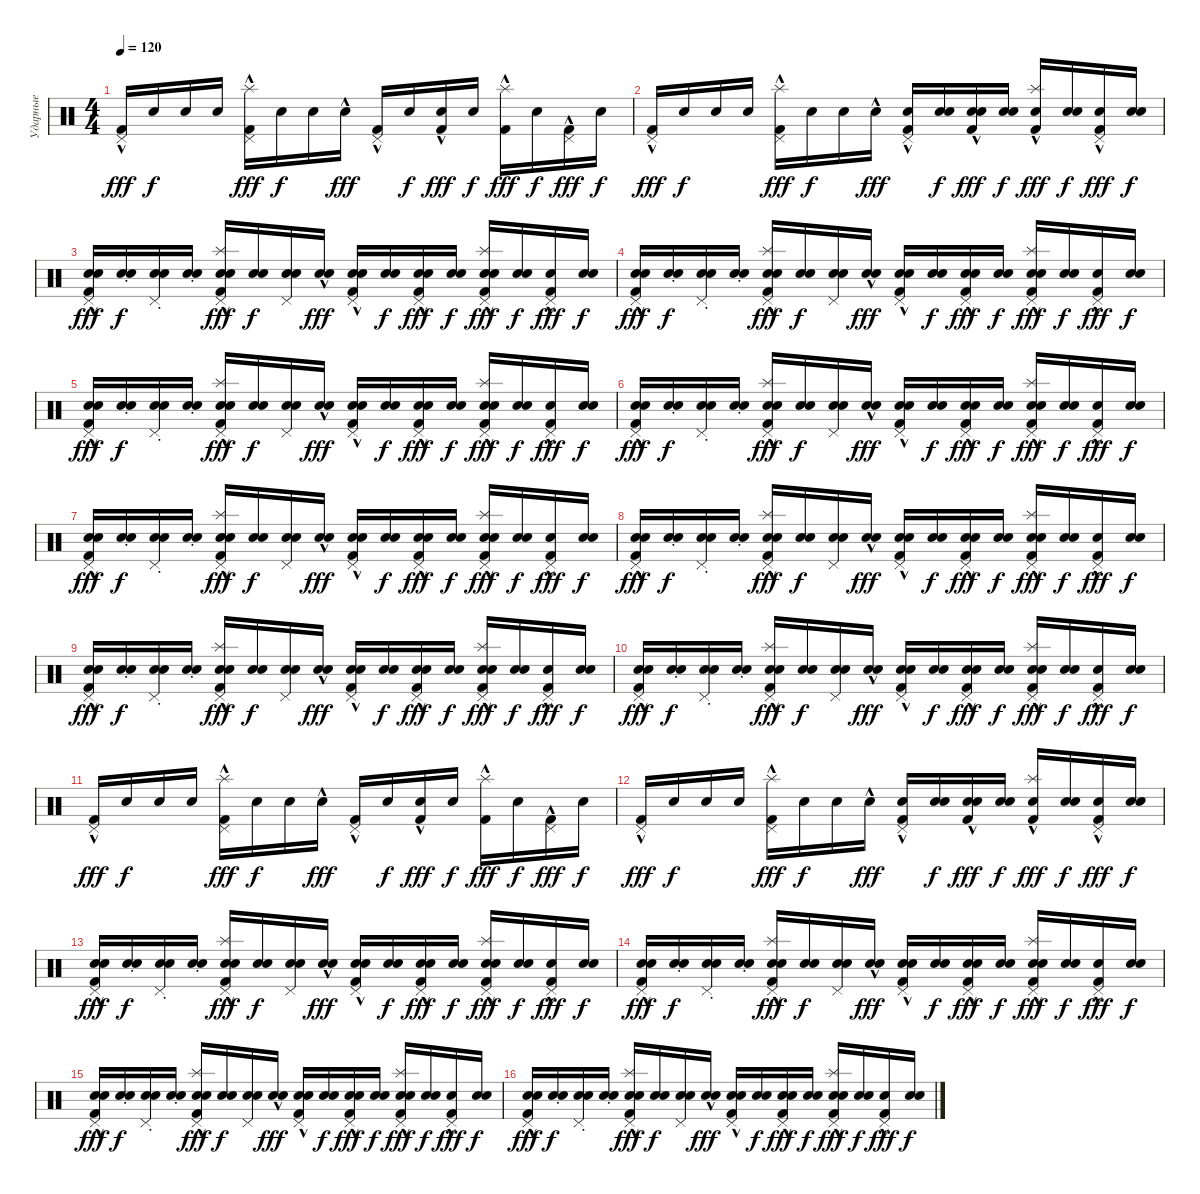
\track ("Ударные" "Ударные") {instrument percussion}
\staff {score}
\articulation defaults
\ts (4 4)
\tempo 120
\clef neutral
\ks c
("Pedal Hi-Hat (hit)"{hac} "Kick (hit) 2"{hac}).16{dy fff} "Snare (hit)".16{dy f} "Snare (hit)".16 "Snare (hit)".16 ("Splash (hit)" "Pedal Hi-Hat (hit)" "Kick (hit) 2"{hac}).16{dy fff} "Snare (hit)".16{dy f} "Snare (hit)".16 "Snare (hit)"{hac}.16{dy fff} ("Pedal Hi-Hat (hit)" "Kick (hit) 2"{hac}).16 "Snare (hit)".16{dy f} ("Electric Snare (hit)" "Kick (hit) 2"{hac}).16{dy fff} "Snare (hit)".16{dy f} ("Splash (hit)"{hac} "Kick (hit) 2"{hac}).16{dy fff} "Snare (hit)".16{dy f} ("Pedal Hi-Hat (hit)"{hac} "Kick (hit) 2"{hac}).16{dy fff} "Snare (hit)".16{dy f} |
("Pedal Hi-Hat (hit)"{hac} "Kick (hit) 2"{hac}).16{dy fff} "Snare (hit)".16{dy f} "Snare (hit)".16 "Snare (hit)".16 ("Splash (hit)" "Pedal Hi-Hat (hit)" "Kick (hit) 2"{hac}).16{dy fff} "Snare (hit)".16{dy f} "Snare (hit)".16 "Snare (hit)"{hac}.16{dy fff} ("Electric Snare (hit)" "Pedal Hi-Hat (hit)"{hac} "Kick (hit) 2"{hac}).16 ("Electric Snare (hit)" "Snare (hit)").16{dy f} ("Electric Snare (hit)" "Electric Snare (hit)"{hac} "Kick (hit) 2"{hac}).16{dy fff} ("Electric Snare (hit)" "Snare (hit)").16{dy f} ("Electric Snare (hit)" "Splash (hit)" "Kick (hit) 2"{hac}).16{dy fff} ("Electric Snare (hit)" "Snare (hit)").16{dy f} ("Electric Snare (hit)" "Pedal Hi-Hat (hit)"{hac} "Kick (hit) 2"{hac}).16{dy fff} ("Electric Snare (hit)" "Snare (hit)").16{dy f} |
("Electric Snare (hit)" "Pedal Hi-Hat (hit)"{hac} "Snare (hit) 2"{hac} "Kick (hit) 2"{hac}).16{dy fff} ("Electric Snare (hit)"{st} "Snare (hit)").16{dy f} ("Electric Snare (hit)"{st} "Pedal Hi-Hat (hit)" "Snare (hit)").16 ("Electric Snare (hit)"{st} "Snare (hit)").16 ("Electric Snare (hit)" "Splash (hit)" "Pedal Hi-Hat (hit)" "Snare (hit) 2"{hac} "Kick (hit) 2"{hac}).16{dy fff} ("Electric Snare (hit)" "Snare (hit)").16{dy f} ("Electric Snare (hit)" "Pedal Hi-Hat (hit)" "Snare (hit)").16 ("Electric Snare (hit)" "Snare (hit)"{hac}).16{dy fff} ("Electric Snare (hit)" "Pedal Hi-Hat (hit)" "Snare (hit) 2"{hac} "Kick (hit) 2"{hac}).16 ("Electric Snare (hit)" "Snare (hit)").16{dy f} ("Electric Snare (hit)" "Electric Snare (hit)" "Pedal Hi-Hat (hit)" "Kick (hit) 2"{hac}).16{dy fff} ("Electric Snare (hit)" "Snare (hit)").16{dy f} ("Electric Snare (hit)" "Splash (hit)"{hac} "Pedal Hi-Hat (hit)" "Snare (hit) 2"{hac} "Kick (hit) 2"{hac}).16{dy fff} ("Electric Snare (hit)" "Snare (hit)").16{dy f} ("Electric Snare (hit)" "Pedal Hi-Hat (hit)"{hac} "Kick (hit) 2"{hac}).16{dy fff} ("Electric Snare (hit)" "Snare (hit)").16{dy f} |
("Electric Snare (hit)" "Pedal Hi-Hat (hit)"{hac} "Snare (hit) 2"{hac} "Kick (hit) 2"{hac}).16{dy fff} ("Electric Snare (hit)"{st} "Snare (hit)").16{dy f} ("Electric Snare (hit)"{st} "Pedal Hi-Hat (hit)" "Snare (hit)").16 ("Electric Snare (hit)"{st} "Snare (hit)").16 ("Electric Snare (hit)" "Splash (hit)" "Pedal Hi-Hat (hit)" "Snare (hit) 2"{hac} "Kick (hit) 2"{hac}).16{dy fff} ("Electric Snare (hit)" "Snare (hit)").16{dy f} ("Electric Snare (hit)" "Pedal Hi-Hat (hit)" "Snare (hit)").16 ("Electric Snare (hit)" "Snare (hit)"{hac}).16{dy fff} ("Electric Snare (hit)" "Pedal Hi-Hat (hit)"{hac} "Snare (hit) 2"{hac} "Kick (hit) 2"{hac}).16 ("Electric Snare (hit)" "Snare (hit)").16{dy f} ("Electric Snare (hit)" "Electric Snare (hit)"{hac} "Pedal Hi-Hat (hit)"{hac} "Kick (hit) 2"{hac}).16{dy fff} ("Electric Snare (hit)" "Snare (hit)").16{dy f} ("Electric Snare (hit)" "Splash (hit)" "Pedal Hi-Hat (hit)"{hac} "Snare (hit) 2"{hac} "Kick (hit) 2"{hac}).16{dy fff} ("Electric Snare (hit)" "Snare (hit)").16{dy f} ("Electric Snare (hit)" "Pedal Hi-Hat (hit)"{hac} "Kick (hit) 2"{hac}).16{dy fff} ("Electric Snare (hit)" "Snare (hit)").16{dy f} |
("Electric Snare (hit)" "Pedal Hi-Hat (hit)"{hac} "Snare (hit) 2"{hac} "Kick (hit) 2"{hac}).16{dy fff} ("Electric Snare (hit)"{st} "Snare (hit)").16{dy f} ("Electric Snare (hit)"{st} "Pedal Hi-Hat (hit)" "Snare (hit)").16 ("Electric Snare (hit)"{st} "Snare (hit)").16 ("Electric Snare (hit)" "Splash (hit)" "Pedal Hi-Hat (hit)" "Snare (hit) 2"{hac} "Kick (hit) 2"{hac}).16{dy fff} ("Electric Snare (hit)" "Snare (hit)").16{dy f} ("Electric Snare (hit)" "Pedal Hi-Hat (hit)" "Snare (hit)").16 ("Electric Snare (hit)" "Snare (hit)"{hac}).16{dy fff} ("Electric Snare (hit)" "Pedal Hi-Hat (hit)" "Snare (hit) 2"{hac} "Kick (hit) 2"{hac}).16 ("Electric Snare (hit)" "Snare (hit)").16{dy f} ("Electric Snare (hit)" "Electric Snare (hit)" "Pedal Hi-Hat (hit)" "Kick (hit) 2"{hac}).16{dy fff} ("Electric Snare (hit)" "Snare (hit)").16{dy f} ("Electric Snare (hit)" "Splash (hit)"{hac} "Pedal Hi-Hat (hit)" "Snare (hit) 2"{hac} "Kick (hit) 2"{hac}).16{dy fff} ("Electric Snare (hit)" "Snare (hit)").16{dy f} ("Electric Snare (hit)" "Pedal Hi-Hat (hit)"{hac} "Kick (hit) 2"{hac}).16{dy fff} ("Electric Snare (hit)" "Snare (hit)").16{dy f} |
("Electric Snare (hit)" "Pedal Hi-Hat (hit)"{hac} "Snare (hit) 2"{hac} "Kick (hit) 2"{hac}).16{dy fff} ("Electric Snare (hit)"{st} "Snare (hit)").16{dy f} ("Electric Snare (hit)"{st} "Pedal Hi-Hat (hit)" "Snare (hit)").16 ("Electric Snare (hit)"{st} "Snare (hit)").16 ("Electric Snare (hit)" "Splash (hit)" "Pedal Hi-Hat (hit)" "Snare (hit) 2"{hac} "Kick (hit) 2"{hac}).16{dy fff} ("Electric Snare (hit)" "Snare (hit)").16{dy f} ("Electric Snare (hit)" "Pedal Hi-Hat (hit)" "Snare (hit)").16 ("Electric Snare (hit)" "Snare (hit)"{hac}).16{dy fff} ("Electric Snare (hit)" "Pedal Hi-Hat (hit)"{hac} "Snare (hit) 2"{hac} "Kick (hit) 2"{hac}).16 ("Electric Snare (hit)" "Snare (hit)").16{dy f} ("Electric Snare (hit)" "Electric Snare (hit)"{hac} "Pedal Hi-Hat (hit)"{hac} "Kick (hit) 2"{hac}).16{dy fff} ("Electric Snare (hit)" "Snare (hit)").16{dy f} ("Electric Snare (hit)" "Splash (hit)" "Pedal Hi-Hat (hit)"{hac} "Snare (hit) 2"{hac} "Kick (hit) 2"{hac}).16{dy fff} ("Electric Snare (hit)" "Snare (hit)").16{dy f} ("Electric Snare (hit)" "Pedal Hi-Hat (hit)"{hac} "Kick (hit) 2"{hac}).16{dy fff} ("Electric Snare (hit)" "Snare (hit)").16{dy f} |
("Electric Snare (hit)" "Pedal Hi-Hat (hit)"{hac} "Snare (hit) 2"{hac} "Kick (hit) 2"{hac}).16{dy fff} ("Electric Snare (hit)"{st} "Snare (hit)").16{dy f} ("Electric Snare (hit)"{st} "Pedal Hi-Hat (hit)" "Snare (hit)").16 ("Electric Snare (hit)"{st} "Snare (hit)").16 ("Electric Snare (hit)" "Splash (hit)" "Pedal Hi-Hat (hit)" "Snare (hit) 2"{hac} "Kick (hit) 2"{hac}).16{dy fff} ("Electric Snare (hit)" "Snare (hit)").16{dy f} ("Electric Snare (hit)" "Pedal Hi-Hat (hit)" "Snare (hit)").16 ("Electric Snare (hit)" "Snare (hit)"{hac}).16{dy fff} ("Electric Snare (hit)" "Pedal Hi-Hat (hit)" "Snare (hit) 2"{hac} "Kick (hit) 2"{hac}).16 ("Electric Snare (hit)" "Snare (hit)").16{dy f} ("Electric Snare (hit)" "Electric Snare (hit)" "Pedal Hi-Hat (hit)" "Kick (hit) 2"{hac}).16{dy fff} ("Electric Snare (hit)" "Snare (hit)").16{dy f} ("Electric Snare (hit)" "Splash (hit)"{hac} "Pedal Hi-Hat (hit)" "Snare (hit) 2"{hac} "Kick (hit) 2"{hac}).16{dy fff} ("Electric Snare (hit)" "Snare (hit)").16{dy f} ("Electric Snare (hit)" "Pedal Hi-Hat (hit)"{hac} "Kick (hit) 2"{hac}).16{dy fff} ("Electric Snare (hit)" "Snare (hit)").16{dy f} |
("Electric Snare (hit)" "Pedal Hi-Hat (hit)"{hac} "Snare (hit) 2"{hac} "Kick (hit) 2"{hac}).16{dy fff} ("Electric Snare (hit)"{st} "Snare (hit)").16{dy f} ("Electric Snare (hit)"{st} "Pedal Hi-Hat (hit)" "Snare (hit)").16 ("Electric Snare (hit)"{st} "Snare (hit)").16 ("Electric Snare (hit)" "Splash (hit)" "Pedal Hi-Hat (hit)" "Snare (hit) 2"{hac} "Kick (hit) 2"{hac}).16{dy fff} ("Electric Snare (hit)" "Snare (hit)").16{dy f} ("Electric Snare (hit)" "Pedal Hi-Hat (hit)" "Snare (hit)").16 ("Electric Snare (hit)" "Snare (hit)"{hac}).16{dy fff} ("Electric Snare (hit)" "Pedal Hi-Hat (hit)"{hac} "Snare (hit) 2"{hac} "Kick (hit) 2"{hac}).16 ("Electric Snare (hit)" "Snare (hit)").16{dy f} ("Electric Snare (hit)" "Electric Snare (hit)"{hac} "Pedal Hi-Hat (hit)"{hac} "Kick (hit) 2"{hac}).16{dy fff} ("Electric Snare (hit)" "Snare (hit)").16{dy f} ("Electric Snare (hit)" "Splash (hit)" "Pedal Hi-Hat (hit)"{hac} "Snare (hit) 2"{hac} "Kick (hit) 2"{hac}).16{dy fff} ("Electric Snare (hit)" "Snare (hit)").16{dy f} ("Electric Snare (hit)" "Pedal Hi-Hat (hit)"{hac} "Kick (hit) 2"{hac}).16{dy fff} ("Electric Snare (hit)" "Snare (hit)").16{dy f} |
("Electric Snare (hit)" "Pedal Hi-Hat (hit)"{hac} "Snare (hit) 2"{hac} "Kick (hit) 2"{hac}).16{dy fff} ("Electric Snare (hit)"{st} "Snare (hit)").16{dy f} ("Electric Snare (hit)"{st} "Pedal Hi-Hat (hit)" "Snare (hit)").16 ("Electric Snare (hit)"{st} "Snare (hit)").16 ("Electric Snare (hit)" "Splash (hit)" "Pedal Hi-Hat (hit)" "Snare (hit) 2"{hac} "Kick (hit) 2"{hac}).16{dy fff} ("Electric Snare (hit)" "Snare (hit)").16{dy f} ("Electric Snare (hit)" "Pedal Hi-Hat (hit)" "Snare (hit)").16 ("Electric Snare (hit)" "Snare (hit)"{hac}).16{dy fff} ("Electric Snare (hit)" "Pedal Hi-Hat (hit)" "Snare (hit) 2"{hac} "Kick (hit) 2"{hac}).16 ("Electric Snare (hit)" "Snare (hit)").16{dy f} ("Electric Snare (hit)" "Electric Snare (hit)" "Pedal Hi-Hat (hit)" "Kick (hit) 2"{hac}).16{dy fff} ("Electric Snare (hit)" "Snare (hit)").16{dy f} ("Electric Snare (hit)" "Splash (hit)"{hac} "Pedal Hi-Hat (hit)" "Snare (hit) 2"{hac} "Kick (hit) 2"{hac}).16{dy fff} ("Electric Snare (hit)" "Snare (hit)").16{dy f} ("Electric Snare (hit)" "Pedal Hi-Hat (hit)"{hac} "Kick (hit) 2"{hac}).16{dy fff} ("Electric Snare (hit)" "Snare (hit)").16{dy f} |
("Electric Snare (hit)" "Pedal Hi-Hat (hit)"{hac} "Snare (hit) 2"{hac} "Kick (hit) 2"{hac}).16{dy fff} ("Electric Snare (hit)"{st} "Snare (hit)").16{dy f} ("Electric Snare (hit)"{st} "Pedal Hi-Hat (hit)" "Snare (hit)").16 ("Electric Snare (hit)"{st} "Snare (hit)").16 ("Electric Snare (hit)" "Splash (hit)" "Pedal Hi-Hat (hit)" "Snare (hit) 2"{hac} "Kick (hit) 2"{hac}).16{dy fff} ("Electric Snare (hit)" "Snare (hit)").16{dy f} ("Electric Snare (hit)" "Pedal Hi-Hat (hit)" "Snare (hit)").16 ("Electric Snare (hit)" "Snare (hit)"{hac}).16{dy fff} ("Electric Snare (hit)" "Pedal Hi-Hat (hit)"{hac} "Snare (hit) 2"{hac} "Kick (hit) 2"{hac}).16 ("Electric Snare (hit)" "Snare (hit)").16{dy f} ("Electric Snare (hit)" "Electric Snare (hit)"{hac} "Pedal Hi-Hat (hit)"{hac} "Kick (hit) 2"{hac}).16{dy fff} ("Electric Snare (hit)" "Snare (hit)").16{dy f} ("Electric Snare (hit)" "Splash (hit)" "Pedal Hi-Hat (hit)"{hac} "Snare (hit) 2"{hac} "Kick (hit) 2"{hac}).16{dy fff} ("Electric Snare (hit)" "Snare (hit)").16{dy f} ("Electric Snare (hit)" "Pedal Hi-Hat (hit)"{hac} "Kick (hit) 2"{hac}).16{dy fff} ("Electric Snare (hit)" "Snare (hit)").16{dy f} |
("Pedal Hi-Hat (hit)"{hac} "Kick (hit) 2"{hac}).16{dy fff} "Snare (hit)".16{dy f} "Snare (hit)".16 "Snare (hit)".16 ("Splash (hit)" "Pedal Hi-Hat (hit)" "Kick (hit) 2"{hac}).16{dy fff} "Snare (hit)".16{dy f} "Snare (hit)".16 "Snare (hit)"{hac}.16{dy fff} ("Pedal Hi-Hat (hit)" "Kick (hit) 2"{hac}).16 "Snare (hit)".16{dy f} ("Electric Snare (hit)" "Kick (hit) 2"{hac}).16{dy fff} "Snare (hit)".16{dy f} ("Splash (hit)"{hac} "Kick (hit) 2"{hac}).16{dy fff} "Snare (hit)".16{dy f} ("Pedal Hi-Hat (hit)"{hac} "Kick (hit) 2"{hac}).16{dy fff} "Snare (hit)".16{dy f} |
("Pedal Hi-Hat (hit)"{hac} "Kick (hit) 2"{hac}).16{dy fff} "Snare (hit)".16{dy f} "Snare (hit)".16 "Snare (hit)".16 ("Splash (hit)" "Pedal Hi-Hat (hit)" "Kick (hit) 2"{hac}).16{dy fff} "Snare (hit)".16{dy f} "Snare (hit)".16 "Snare (hit)"{hac}.16{dy fff} ("Electric Snare (hit)" "Pedal Hi-Hat (hit)"{hac} "Kick (hit) 2"{hac}).16 ("Electric Snare (hit)" "Snare (hit)").16{dy f} ("Electric Snare (hit)" "Electric Snare (hit)"{hac} "Kick (hit) 2"{hac}).16{dy fff} ("Electric Snare (hit)" "Snare (hit)").16{dy f} ("Electric Snare (hit)" "Splash (hit)" "Kick (hit) 2"{hac}).16{dy fff} ("Electric Snare (hit)" "Snare (hit)").16{dy f} ("Electric Snare (hit)" "Pedal Hi-Hat (hit)"{hac} "Kick (hit) 2"{hac}).16{dy fff} ("Electric Snare (hit)" "Snare (hit)").16{dy f} |
("Electric Snare (hit)" "Pedal Hi-Hat (hit)"{hac} "Snare (hit) 2"{hac} "Kick (hit) 2"{hac}).16{dy fff} ("Electric Snare (hit)"{st} "Snare (hit)").16{dy f} ("Electric Snare (hit)"{st} "Pedal Hi-Hat (hit)" "Snare (hit)").16 ("Electric Snare (hit)"{st} "Snare (hit)").16 ("Electric Snare (hit)" "Splash (hit)" "Pedal Hi-Hat (hit)" "Snare (hit) 2"{hac} "Kick (hit) 2"{hac}).16{dy fff} ("Electric Snare (hit)" "Snare (hit)").16{dy f} ("Electric Snare (hit)" "Pedal Hi-Hat (hit)" "Snare (hit)").16 ("Electric Snare (hit)" "Snare (hit)"{hac}).16{dy fff} ("Electric Snare (hit)" "Pedal Hi-Hat (hit)" "Snare (hit) 2"{hac} "Kick (hit) 2"{hac}).16 ("Electric Snare (hit)" "Snare (hit)").16{dy f} ("Electric Snare (hit)" "Electric Snare (hit)" "Pedal Hi-Hat (hit)" "Kick (hit) 2"{hac}).16{dy fff} ("Electric Snare (hit)" "Snare (hit)").16{dy f} ("Electric Snare (hit)" "Splash (hit)"{hac} "Pedal Hi-Hat (hit)" "Snare (hit) 2"{hac} "Kick (hit) 2"{hac}).16{dy fff} ("Electric Snare (hit)" "Snare (hit)").16{dy f} ("Electric Snare (hit)" "Pedal Hi-Hat (hit)"{hac} "Kick (hit) 2"{hac}).16{dy fff} ("Electric Snare (hit)" "Snare (hit)").16{dy f} |
("Electric Snare (hit)" "Pedal Hi-Hat (hit)"{hac} "Snare (hit) 2"{hac} "Kick (hit) 2"{hac}).16{dy fff} ("Electric Snare (hit)"{st} "Snare (hit)").16{dy f} ("Electric Snare (hit)"{st} "Pedal Hi-Hat (hit)" "Snare (hit)").16 ("Electric Snare (hit)"{st} "Snare (hit)").16 ("Electric Snare (hit)" "Splash (hit)" "Pedal Hi-Hat (hit)" "Snare (hit) 2"{hac} "Kick (hit) 2"{hac}).16{dy fff} ("Electric Snare (hit)" "Snare (hit)").16{dy f} ("Electric Snare (hit)" "Pedal Hi-Hat (hit)" "Snare (hit)").16 ("Electric Snare (hit)" "Snare (hit)"{hac}).16{dy fff} ("Electric Snare (hit)" "Pedal Hi-Hat (hit)"{hac} "Snare (hit) 2"{hac} "Kick (hit) 2"{hac}).16 ("Electric Snare (hit)" "Snare (hit)").16{dy f} ("Electric Snare (hit)" "Electric Snare (hit)"{hac} "Pedal Hi-Hat (hit)"{hac} "Kick (hit) 2"{hac}).16{dy fff} ("Electric Snare (hit)" "Snare (hit)").16{dy f} ("Electric Snare (hit)" "Splash (hit)" "Pedal Hi-Hat (hit)"{hac} "Snare (hit) 2"{hac} "Kick (hit) 2"{hac}).16{dy fff} ("Electric Snare (hit)" "Snare (hit)").16{dy f} ("Electric Snare (hit)" "Pedal Hi-Hat (hit)"{hac} "Kick (hit) 2"{hac}).16{dy fff} ("Electric Snare (hit)" "Snare (hit)").16{dy f} |
("Electric Snare (hit)" "Pedal Hi-Hat (hit)"{hac} "Snare (hit) 2"{hac} "Kick (hit) 2"{hac}).16{dy fff} ("Electric Snare (hit)"{st} "Snare (hit)").16{dy f} ("Electric Snare (hit)"{st} "Pedal Hi-Hat (hit)" "Snare (hit)").16 ("Electric Snare (hit)"{st} "Snare (hit)").16 ("Electric Snare (hit)" "Splash (hit)" "Pedal Hi-Hat (hit)" "Snare (hit) 2"{hac} "Kick (hit) 2"{hac}).16{dy fff} ("Electric Snare (hit)" "Snare (hit)").16{dy f} ("Electric Snare (hit)" "Pedal Hi-Hat (hit)" "Snare (hit)").16 ("Electric Snare (hit)" "Snare (hit)"{hac}).16{dy fff} ("Electric Snare (hit)" "Pedal Hi-Hat (hit)" "Snare (hit) 2"{hac} "Kick (hit) 2"{hac}).16 ("Electric Snare (hit)" "Snare (hit)").16{dy f} ("Electric Snare (hit)" "Electric Snare (hit)" "Pedal Hi-Hat (hit)" "Kick (hit) 2"{hac}).16{dy fff} ("Electric Snare (hit)" "Snare (hit)").16{dy f} ("Electric Snare (hit)" "Splash (hit)"{hac} "Pedal Hi-Hat (hit)" "Snare (hit) 2"{hac} "Kick (hit) 2"{hac}).16{dy fff} ("Electric Snare (hit)" "Snare (hit)").16{dy f} ("Electric Snare (hit)" "Pedal Hi-Hat (hit)"{hac} "Kick (hit) 2"{hac}).16{dy fff} ("Electric Snare (hit)" "Snare (hit)").16{dy f} |
("Electric Snare (hit)" "Pedal Hi-Hat (hit)"{hac} "Snare (hit) 2"{hac} "Kick (hit) 2"{hac}).16{dy fff} ("Electric Snare (hit)"{st} "Snare (hit)").16{dy f} ("Electric Snare (hit)"{st} "Pedal Hi-Hat (hit)" "Snare (hit)").16 ("Electric Snare (hit)"{st} "Snare (hit)").16 ("Electric Snare (hit)" "Splash (hit)" "Pedal Hi-Hat (hit)" "Snare (hit) 2"{hac} "Kick (hit) 2"{hac}).16{dy fff} ("Electric Snare (hit)" "Snare (hit)").16{dy f} ("Electric Snare (hit)" "Pedal Hi-Hat (hit)" "Snare (hit)").16 ("Electric Snare (hit)" "Snare (hit)"{hac}).16{dy fff} ("Electric Snare (hit)" "Pedal Hi-Hat (hit)"{hac} "Snare (hit) 2"{hac} "Kick (hit) 2"{hac}).16 ("Electric Snare (hit)" "Snare (hit)").16{dy f} ("Electric Snare (hit)" "Electric Snare (hit)"{hac} "Pedal Hi-Hat (hit)"{hac} "Kick (hit) 2"{hac}).16{dy fff} ("Electric Snare (hit)" "Snare (hit)").16{dy f} ("Electric Snare (hit)" "Splash (hit)" "Pedal Hi-Hat (hit)"{hac} "Snare (hit) 2"{hac} "Kick (hit) 2"{hac}).16{dy fff} ("Electric Snare (hit)" "Snare (hit)").16{dy f} ("Electric Snare (hit)" "Pedal Hi-Hat (hit)"{hac} "Kick (hit) 2"{hac}).16{dy fff} ("Electric Snare (hit)" "Snare (hit)").16{dy f}
